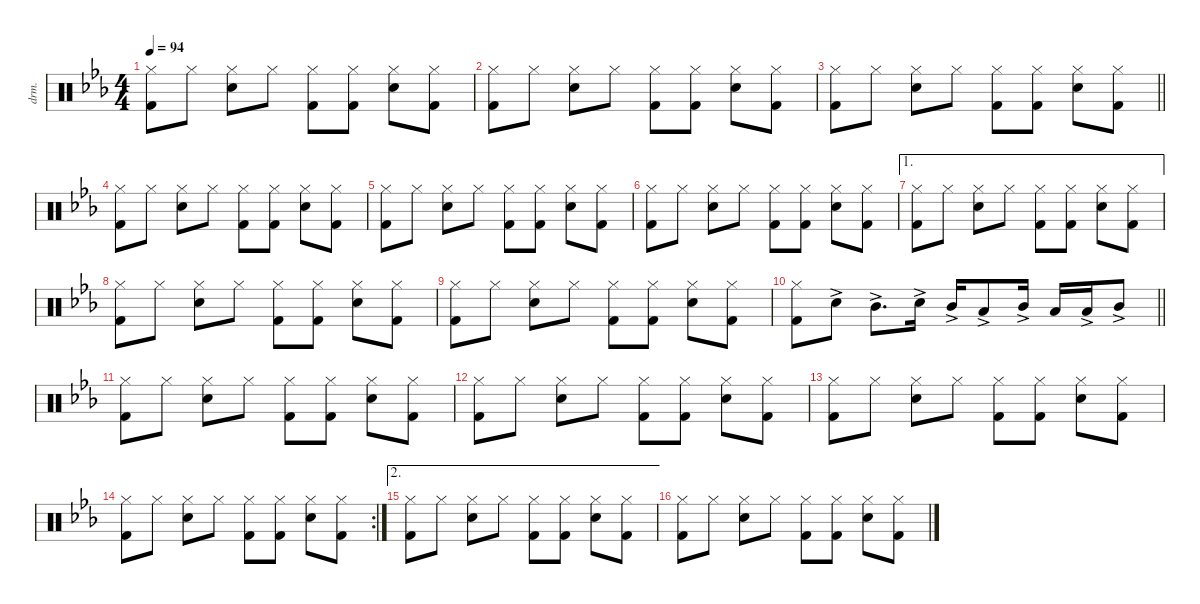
\defaultSystemsLayout 4
\hideDynamics
\bracketExtendMode nobrackets
\otherSystemsTrackNameOrientation horizontal
\track ("Percussion" "drm.") {instrument percussion}
\staff {score}
\articulation defaults
\ts (4 4)
\tempo 94
\clef neutral
\ks eb
("Hi-Hat (closed)"{acc forcenatural} "Kick (hit) 2"{acc forcenatural}).8{dy f} "Hi-Hat (closed)"{acc forcenatural}.8 ("Hi-Hat (closed)"{acc forcenatural} "Snare (hit) 2"{acc forcenatural}).8 "Hi-Hat (closed)"{acc forcenatural}.8 ("Hi-Hat (closed)"{acc forcenatural} "Kick (hit) 2"{acc forcenatural}).8 ("Hi-Hat (closed)"{acc forcenatural} "Kick (hit) 2"{acc forcenatural}).8 ("Hi-Hat (closed)"{acc forcenatural} "Snare (hit) 2"{acc forcenatural}).8 ("Hi-Hat (closed)"{acc forcenatural} "Kick (hit) 2"{acc forcenatural}).8 |
("Hi-Hat (closed)"{acc forcenatural} "Kick (hit) 2"{acc forcenatural}).8 "Hi-Hat (closed)"{acc forcenatural}.8 ("Hi-Hat (closed)"{acc forcenatural} "Snare (hit) 2"{acc forcenatural}).8 "Hi-Hat (closed)"{acc forcenatural}.8 ("Hi-Hat (closed)"{acc forcenatural} "Kick (hit) 2"{acc forcenatural}).8 ("Hi-Hat (closed)"{acc forcenatural} "Kick (hit) 2"{acc forcenatural}).8 ("Hi-Hat (closed)"{acc forcenatural} "Snare (hit) 2"{acc forcenatural}).8 ("Hi-Hat (closed)"{acc forcenatural} "Kick (hit) 2"{acc forcenatural}).8 |
\barLineRight lightlight
("Hi-Hat (closed)"{acc forcenatural} "Kick (hit) 2"{acc forcenatural}).8 "Hi-Hat (closed)"{acc forcenatural}.8 ("Hi-Hat (closed)"{acc forcenatural} "Snare (hit) 2"{acc forcenatural}).8 "Hi-Hat (closed)"{acc forcenatural}.8 ("Hi-Hat (closed)"{acc forcenatural} "Kick (hit) 2"{acc forcenatural}).8 ("Hi-Hat (closed)"{acc forcenatural} "Kick (hit) 2"{acc forcenatural}).8 ("Hi-Hat (closed)"{acc forcenatural} "Snare (hit) 2"{acc forcenatural}).8 ("Hi-Hat (closed)"{acc forcenatural} "Kick (hit) 2"{acc forcenatural}).8 |
("Hi-Hat (closed)"{acc forcenatural} "Kick (hit) 2"{acc forcenatural}).8 "Hi-Hat (closed)"{acc forcenatural}.8 ("Hi-Hat (closed)"{acc forcenatural} "Snare (hit) 2"{acc forcenatural}).8 "Hi-Hat (closed)"{acc forcenatural}.8 ("Hi-Hat (closed)"{acc forcenatural} "Kick (hit) 2"{acc forcenatural}).8 ("Hi-Hat (closed)"{acc forcenatural} "Kick (hit) 2"{acc forcenatural}).8 ("Hi-Hat (closed)"{acc forcenatural} "Snare (hit) 2"{acc forcenatural}).8 ("Hi-Hat (closed)"{acc forcenatural} "Kick (hit) 2"{acc forcenatural}).8 |
("Hi-Hat (closed)"{acc forcenatural} "Kick (hit) 2"{acc forcenatural}).8 "Hi-Hat (closed)"{acc forcenatural}.8 ("Hi-Hat (closed)"{acc forcenatural} "Snare (hit) 2"{acc forcenatural}).8 "Hi-Hat (closed)"{acc forcenatural}.8 ("Hi-Hat (closed)"{acc forcenatural} "Kick (hit) 2"{acc forcenatural}).8 ("Hi-Hat (closed)"{acc forcenatural} "Kick (hit) 2"{acc forcenatural}).8 ("Hi-Hat (closed)"{acc forcenatural} "Snare (hit) 2"{acc forcenatural}).8 ("Hi-Hat (closed)"{acc forcenatural} "Kick (hit) 2"{acc forcenatural}).8 |
("Hi-Hat (closed)"{acc forcenatural} "Kick (hit) 2"{acc forcenatural}).8 "Hi-Hat (closed)"{acc forcenatural}.8 ("Hi-Hat (closed)"{acc forcenatural} "Snare (hit) 2"{acc forcenatural}).8 "Hi-Hat (closed)"{acc forcenatural}.8 ("Hi-Hat (closed)"{acc forcenatural} "Kick (hit) 2"{acc forcenatural}).8 ("Hi-Hat (closed)"{acc forcenatural} "Kick (hit) 2"{acc forcenatural}).8 ("Hi-Hat (closed)"{acc forcenatural} "Snare (hit) 2"{acc forcenatural}).8 ("Hi-Hat (closed)"{acc forcenatural} "Kick (hit) 2"{acc forcenatural}).8 |
\ae 1
("Hi-Hat (closed)"{acc forcenatural} "Kick (hit) 2"{acc forcenatural}).8 "Hi-Hat (closed)"{acc forcenatural}.8 ("Hi-Hat (closed)"{acc forcenatural} "Snare (hit) 2"{acc forcenatural}).8 "Hi-Hat (closed)"{acc forcenatural}.8 ("Hi-Hat (closed)"{acc forcenatural} "Kick (hit) 2"{acc forcenatural}).8 ("Hi-Hat (closed)"{acc forcenatural} "Kick (hit) 2"{acc forcenatural}).8 ("Hi-Hat (closed)"{acc forcenatural} "Snare (hit) 2"{acc forcenatural}).8 ("Hi-Hat (closed)"{acc forcenatural} "Kick (hit) 2"{acc forcenatural}).8 |
("Hi-Hat (closed)"{acc forcenatural} "Kick (hit) 2"{acc forcenatural}).8 "Hi-Hat (closed)"{acc forcenatural}.8 ("Hi-Hat (closed)"{acc forcenatural} "Snare (hit) 2"{acc forcenatural}).8 "Hi-Hat (closed)"{acc forcenatural}.8 ("Hi-Hat (closed)"{acc forcenatural} "Kick (hit) 2"{acc forcenatural}).8 ("Hi-Hat (closed)"{acc forcenatural} "Kick (hit) 2"{acc forcenatural}).8 ("Hi-Hat (closed)"{acc forcenatural} "Snare (hit) 2"{acc forcenatural}).8 ("Hi-Hat (closed)"{acc forcenatural} "Kick (hit) 2"{acc forcenatural}).8 |
("Hi-Hat (closed)"{acc forcenatural} "Kick (hit) 2"{acc forcenatural}).8 "Hi-Hat (closed)"{acc forcenatural}.8 ("Hi-Hat (closed)"{acc forcenatural} "Snare (hit) 2"{acc forcenatural}).8 "Hi-Hat (closed)"{acc forcenatural}.8 ("Hi-Hat (closed)"{acc forcenatural} "Kick (hit) 2"{acc forcenatural}).8 ("Hi-Hat (closed)"{acc forcenatural} "Kick (hit) 2"{acc forcenatural}).8 ("Hi-Hat (closed)"{acc forcenatural} "Snare (hit) 2"{acc forcenatural}).8 ("Hi-Hat (closed)"{acc forcenatural} "Kick (hit) 2"{acc forcenatural}).8 |
\barLineRight lightlight
("Hi-Hat (closed)"{acc forcenatural} "Kick (hit) 2"{acc forcenatural}).8 "Snare (hit) 2"{ac acc forcenatural}.8{dy mp} "Mid Tom (hit)"{ac acc forcenatural}.8{d} "Snare (hit) 2"{ac acc forcenatural}.16 "Mid Tom (hit)"{ac acc forcenatural}.16 "Low Tom (hit)"{ac acc forcenatural}.8 "Mid Tom (hit)"{ac acc forcenatural}.16 "Low Tom (hit)"{acc forcenatural}.16{dy f} "Low Tom (hit)"{ac acc forcenatural}.16{dy mp} "Mid Tom (hit)"{ac acc forcenatural}.8 |
("Hi-Hat (closed)"{acc forcenatural} "Kick (hit) 2"{acc forcenatural}).8{dy f} "Hi-Hat (closed)"{acc forcenatural}.8 ("Hi-Hat (closed)"{acc forcenatural} "Snare (hit) 2"{acc forcenatural}).8 "Hi-Hat (closed)"{acc forcenatural}.8 ("Hi-Hat (closed)"{acc forcenatural} "Kick (hit) 2"{acc forcenatural}).8 ("Hi-Hat (closed)"{acc forcenatural} "Kick (hit) 2"{acc forcenatural}).8 ("Hi-Hat (closed)"{acc forcenatural} "Snare (hit) 2"{acc forcenatural}).8 ("Hi-Hat (closed)"{acc forcenatural} "Kick (hit) 2"{acc forcenatural}).8 |
("Hi-Hat (closed)"{acc forcenatural} "Kick (hit) 2"{acc forcenatural}).8 "Hi-Hat (closed)"{acc forcenatural}.8 ("Hi-Hat (closed)"{acc forcenatural} "Snare (hit) 2"{acc forcenatural}).8 "Hi-Hat (closed)"{acc forcenatural}.8 ("Hi-Hat (closed)"{acc forcenatural} "Kick (hit) 2"{acc forcenatural}).8 ("Hi-Hat (closed)"{acc forcenatural} "Kick (hit) 2"{acc forcenatural}).8 ("Hi-Hat (closed)"{acc forcenatural} "Snare (hit) 2"{acc forcenatural}).8 ("Hi-Hat (closed)"{acc forcenatural} "Kick (hit) 2"{acc forcenatural}).8 |
("Hi-Hat (closed)"{acc forcenatural} "Kick (hit) 2"{acc forcenatural}).8 "Hi-Hat (closed)"{acc forcenatural}.8 ("Hi-Hat (closed)"{acc forcenatural} "Snare (hit) 2"{acc forcenatural}).8 "Hi-Hat (closed)"{acc forcenatural}.8 ("Hi-Hat (closed)"{acc forcenatural} "Kick (hit) 2"{acc forcenatural}).8 ("Hi-Hat (closed)"{acc forcenatural} "Kick (hit) 2"{acc forcenatural}).8 ("Hi-Hat (closed)"{acc forcenatural} "Snare (hit) 2"{acc forcenatural}).8 ("Hi-Hat (closed)"{acc forcenatural} "Kick (hit) 2"{acc forcenatural}).8 |
\rc 2
("Hi-Hat (closed)"{acc forcenatural} "Kick (hit) 2"{acc forcenatural}).8 "Hi-Hat (closed)"{acc forcenatural}.8 ("Hi-Hat (closed)"{acc forcenatural} "Snare (hit) 2"{acc forcenatural}).8 "Hi-Hat (closed)"{acc forcenatural}.8 ("Hi-Hat (closed)"{acc forcenatural} "Kick (hit) 2"{acc forcenatural}).8 ("Hi-Hat (closed)"{acc forcenatural} "Kick (hit) 2"{acc forcenatural}).8 ("Hi-Hat (closed)"{acc forcenatural} "Snare (hit) 2"{acc forcenatural}).8 ("Hi-Hat (closed)"{acc forcenatural} "Kick (hit) 2"{acc forcenatural}).8 |
\ae 2
("Hi-Hat (closed)"{acc forcenatural} "Kick (hit) 2"{acc forcenatural}).8 "Hi-Hat (closed)"{acc forcenatural}.8 ("Hi-Hat (closed)"{acc forcenatural} "Snare (hit) 2"{acc forcenatural}).8 "Hi-Hat (closed)"{acc forcenatural}.8 ("Hi-Hat (closed)"{acc forcenatural} "Kick (hit) 2"{acc forcenatural}).8 ("Hi-Hat (closed)"{acc forcenatural} "Kick (hit) 2"{acc forcenatural}).8 ("Hi-Hat (closed)"{acc forcenatural} "Snare (hit) 2"{acc forcenatural}).8 ("Hi-Hat (closed)"{acc forcenatural} "Kick (hit) 2"{acc forcenatural}).8 |
("Hi-Hat (closed)"{acc forcenatural} "Kick (hit) 2"{acc forcenatural}).8 "Hi-Hat (closed)"{acc forcenatural}.8 ("Hi-Hat (closed)"{acc forcenatural} "Snare (hit) 2"{acc forcenatural}).8 "Hi-Hat (closed)"{acc forcenatural}.8 ("Hi-Hat (closed)"{acc forcenatural} "Kick (hit) 2"{acc forcenatural}).8 ("Hi-Hat (closed)"{acc forcenatural} "Kick (hit) 2"{acc forcenatural}).8 ("Hi-Hat (closed)"{acc forcenatural} "Snare (hit) 2"{acc forcenatural}).8 ("Hi-Hat (closed)"{acc forcenatural} "Kick (hit) 2"{acc forcenatural}).8
